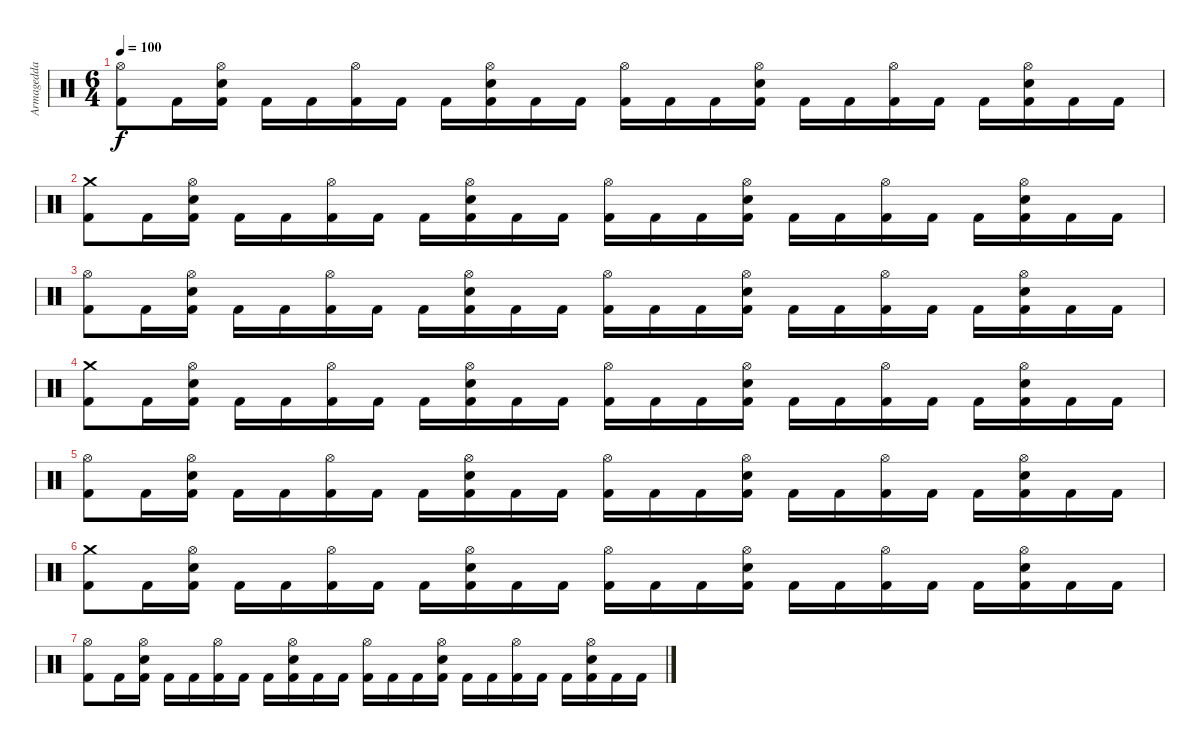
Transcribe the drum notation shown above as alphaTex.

\track ("Armagedda" "Armagedda") {instrument percussion}
\staff {score}
\articulation defaults
\ts (6 4)
\tempo 100
\clef neutral
\ks c
("Hi-Hat (open)" "Kick (hit) 2").8{dy f} "Kick (hit) 2".16 ("Hi-Hat (open)" "Snare (hit) 2" "Kick (hit) 2").16 "Kick (hit) 2".16 "Kick (hit) 2".16 ("Hi-Hat (open)" "Kick (hit) 2").16 "Kick (hit) 2".16 "Kick (hit) 2".16 ("Hi-Hat (open)" "Snare (hit) 2" "Kick (hit) 2").16 "Kick (hit) 2".16 "Kick (hit) 2".16 ("Hi-Hat (open)" "Kick (hit) 2").16 "Kick (hit) 2".16 "Kick (hit) 2".16 ("Hi-Hat (open)" "Snare (hit) 2" "Kick (hit) 2").16 "Kick (hit) 2".16 "Kick (hit) 2".16 ("Hi-Hat (open)" "Kick (hit) 2").16 "Kick (hit) 2".16 "Kick (hit) 2".16 ("Hi-Hat (open)" "Snare (hit) 2" "Kick (hit) 2").16 "Kick (hit) 2".16 "Kick (hit) 2".16 |
("Crash medium (hit)" "Kick (hit) 2").8 "Kick (hit) 2".16 ("Hi-Hat (open)" "Snare (hit) 2" "Kick (hit) 2").16 "Kick (hit) 2".16 "Kick (hit) 2".16 ("Hi-Hat (open)" "Kick (hit) 2").16 "Kick (hit) 2".16 "Kick (hit) 2".16 ("Hi-Hat (open)" "Snare (hit) 2" "Kick (hit) 2").16 "Kick (hit) 2".16 "Kick (hit) 2".16 ("Hi-Hat (open)" "Kick (hit) 2").16 "Kick (hit) 2".16 "Kick (hit) 2".16 ("Hi-Hat (open)" "Snare (hit) 2" "Kick (hit) 2").16 "Kick (hit) 2".16 "Kick (hit) 2".16 ("Hi-Hat (open)" "Kick (hit) 2").16 "Kick (hit) 2".16 "Kick (hit) 2".16 ("Hi-Hat (open)" "Snare (hit) 2" "Kick (hit) 2").16 "Kick (hit) 2".16 "Kick (hit) 2".16 |
("Hi-Hat (open)" "Kick (hit) 2").8 "Kick (hit) 2".16 ("Hi-Hat (open)" "Snare (hit) 2" "Kick (hit) 2").16 "Kick (hit) 2".16 "Kick (hit) 2".16 ("Hi-Hat (open)" "Kick (hit) 2").16 "Kick (hit) 2".16 "Kick (hit) 2".16 ("Hi-Hat (open)" "Snare (hit) 2" "Kick (hit) 2").16 "Kick (hit) 2".16 "Kick (hit) 2".16 ("Hi-Hat (open)" "Kick (hit) 2").16 "Kick (hit) 2".16 "Kick (hit) 2".16 ("Hi-Hat (open)" "Snare (hit) 2" "Kick (hit) 2").16 "Kick (hit) 2".16 "Kick (hit) 2".16 ("Hi-Hat (open)" "Kick (hit) 2").16 "Kick (hit) 2".16 "Kick (hit) 2".16 ("Hi-Hat (open)" "Snare (hit) 2" "Kick (hit) 2").16 "Kick (hit) 2".16 "Kick (hit) 2".16 |
("Crash medium (hit)" "Kick (hit) 2").8 "Kick (hit) 2".16 ("Hi-Hat (open)" "Snare (hit) 2" "Kick (hit) 2").16 "Kick (hit) 2".16 "Kick (hit) 2".16 ("Hi-Hat (open)" "Kick (hit) 2").16 "Kick (hit) 2".16 "Kick (hit) 2".16 ("Hi-Hat (open)" "Snare (hit) 2" "Kick (hit) 2").16 "Kick (hit) 2".16 "Kick (hit) 2".16 ("Hi-Hat (open)" "Kick (hit) 2").16 "Kick (hit) 2".16 "Kick (hit) 2".16 ("Hi-Hat (open)" "Snare (hit) 2" "Kick (hit) 2").16 "Kick (hit) 2".16 "Kick (hit) 2".16 ("Hi-Hat (open)" "Kick (hit) 2").16 "Kick (hit) 2".16 "Kick (hit) 2".16 ("Hi-Hat (open)" "Snare (hit) 2" "Kick (hit) 2").16 "Kick (hit) 2".16 "Kick (hit) 2".16 |
("Hi-Hat (open)" "Kick (hit) 2").8 "Kick (hit) 2".16 ("Hi-Hat (open)" "Snare (hit) 2" "Kick (hit) 2").16 "Kick (hit) 2".16 "Kick (hit) 2".16 ("Hi-Hat (open)" "Kick (hit) 2").16 "Kick (hit) 2".16 "Kick (hit) 2".16 ("Hi-Hat (open)" "Snare (hit) 2" "Kick (hit) 2").16 "Kick (hit) 2".16 "Kick (hit) 2".16 ("Hi-Hat (open)" "Kick (hit) 2").16 "Kick (hit) 2".16 "Kick (hit) 2".16 ("Hi-Hat (open)" "Snare (hit) 2" "Kick (hit) 2").16 "Kick (hit) 2".16 "Kick (hit) 2".16 ("Hi-Hat (open)" "Kick (hit) 2").16 "Kick (hit) 2".16 "Kick (hit) 2".16 ("Hi-Hat (open)" "Snare (hit) 2" "Kick (hit) 2").16 "Kick (hit) 2".16 "Kick (hit) 2".16 |
("Crash medium (hit)" "Kick (hit) 2").8 "Kick (hit) 2".16 ("Hi-Hat (open)" "Snare (hit) 2" "Kick (hit) 2").16 "Kick (hit) 2".16 "Kick (hit) 2".16 ("Hi-Hat (open)" "Kick (hit) 2").16 "Kick (hit) 2".16 "Kick (hit) 2".16 ("Hi-Hat (open)" "Snare (hit) 2" "Kick (hit) 2").16 "Kick (hit) 2".16 "Kick (hit) 2".16 ("Hi-Hat (open)" "Kick (hit) 2").16 "Kick (hit) 2".16 "Kick (hit) 2".16 ("Hi-Hat (open)" "Snare (hit) 2" "Kick (hit) 2").16 "Kick (hit) 2".16 "Kick (hit) 2".16 ("Hi-Hat (open)" "Kick (hit) 2").16 "Kick (hit) 2".16 "Kick (hit) 2".16 ("Hi-Hat (open)" "Snare (hit) 2" "Kick (hit) 2").16 "Kick (hit) 2".16 "Kick (hit) 2".16 |
("Hi-Hat (open)" "Kick (hit) 2").8 "Kick (hit) 2".16 ("Hi-Hat (open)" "Snare (hit) 2" "Kick (hit) 2").16 "Kick (hit) 2".16 "Kick (hit) 2".16 ("Hi-Hat (open)" "Kick (hit) 2").16 "Kick (hit) 2".16 "Kick (hit) 2".16 ("Hi-Hat (open)" "Snare (hit) 2" "Kick (hit) 2").16 "Kick (hit) 2".16 "Kick (hit) 2".16 ("Hi-Hat (open)" "Kick (hit) 2").16 "Kick (hit) 2".16 "Kick (hit) 2".16 ("Hi-Hat (open)" "Snare (hit) 2" "Kick (hit) 2").16 "Kick (hit) 2".16 "Kick (hit) 2".16 ("Hi-Hat (open)" "Kick (hit) 2").16 "Kick (hit) 2".16 "Kick (hit) 2".16 ("Hi-Hat (open)" "Snare (hit) 2" "Kick (hit) 2").16 "Kick (hit) 2".16 "Kick (hit) 2".16
